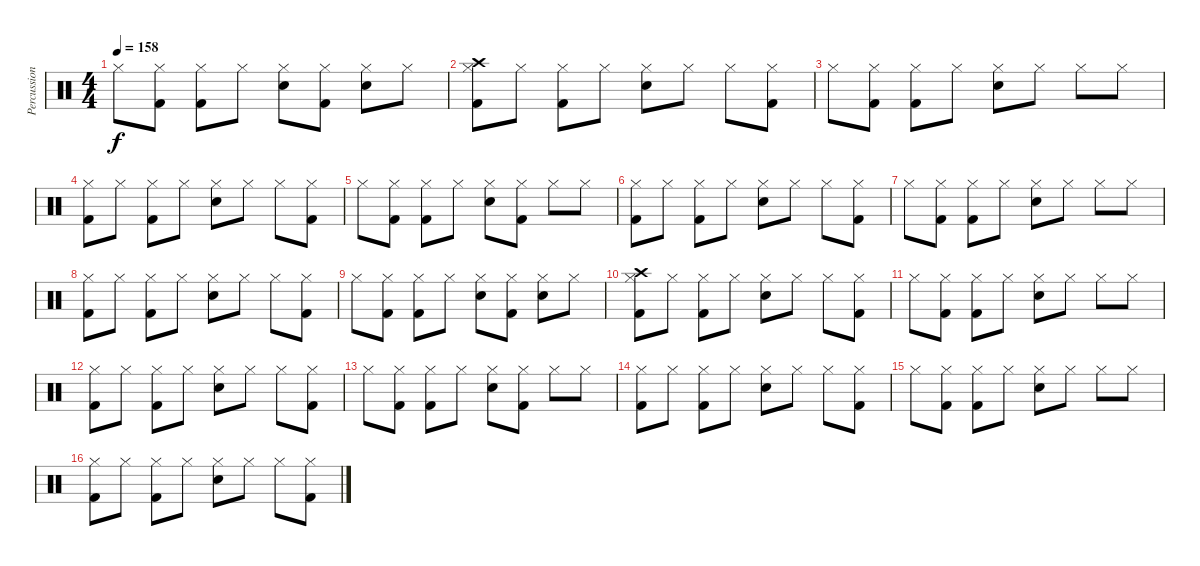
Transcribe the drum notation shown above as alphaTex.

\track ("Percussion" "Percussion") {instrument percussion}
\staff {score}
\articulation defaults
\ts (4 4)
\tempo 158
\clef neutral
\ks c "Hi-Hat (closed)".8{dy f}
("Hi-Hat (closed)" "Kick (hit) 2").8 ("Hi-Hat (closed)" "Kick (hit) 2").8 "Hi-Hat (closed)".8 ("Hi-Hat (closed)" "Electric Snare (hit)").8 ("Hi-Hat (closed)" "Kick (hit) 2").8 ("Hi-Hat (closed)" "Electric Snare (hit)").8 "Hi-Hat (closed)".8 |
("Hi-Hat (closed)" "Kick (hit) 2" "Crash high (hit)").8 "Hi-Hat (closed)".8 ("Hi-Hat (closed)" "Kick (hit) 2").8 "Hi-Hat (closed)".8 ("Hi-Hat (closed)" "Electric Snare (hit)").8 "Hi-Hat (closed)".8 "Hi-Hat (closed)".8 ("Hi-Hat (closed)" "Kick (hit) 2").8 |
"Hi-Hat (closed)".8 ("Hi-Hat (closed)" "Kick (hit) 2").8 ("Hi-Hat (closed)" "Kick (hit) 2").8 "Hi-Hat (closed)".8 ("Hi-Hat (closed)" "Electric Snare (hit)").8 "Hi-Hat (closed)".8 "Hi-Hat (closed)".8 "Hi-Hat (closed)".8 |
("Hi-Hat (closed)" "Kick (hit) 2").8 "Hi-Hat (closed)".8 ("Hi-Hat (closed)" "Kick (hit) 2").8 "Hi-Hat (closed)".8 ("Hi-Hat (closed)" "Electric Snare (hit)").8 "Hi-Hat (closed)".8 "Hi-Hat (closed)".8 ("Hi-Hat (closed)" "Kick (hit) 2").8 |
"Hi-Hat (closed)".8 ("Hi-Hat (closed)" "Kick (hit) 2").8 ("Hi-Hat (closed)" "Kick (hit) 2").8 "Hi-Hat (closed)".8 ("Hi-Hat (closed)" "Electric Snare (hit)").8 ("Hi-Hat (closed)" "Kick (hit) 2").8 "Hi-Hat (closed)".8 "Hi-Hat (closed)".8 |
("Hi-Hat (closed)" "Kick (hit) 2").8 "Hi-Hat (closed)".8 ("Hi-Hat (closed)" "Kick (hit) 2").8 "Hi-Hat (closed)".8 ("Hi-Hat (closed)" "Electric Snare (hit)").8 "Hi-Hat (closed)".8 "Hi-Hat (closed)".8 ("Hi-Hat (closed)" "Kick (hit) 2").8 |
"Hi-Hat (closed)".8 ("Hi-Hat (closed)" "Kick (hit) 2").8 ("Hi-Hat (closed)" "Kick (hit) 2").8 "Hi-Hat (closed)".8 ("Hi-Hat (closed)" "Electric Snare (hit)").8 "Hi-Hat (closed)".8 "Hi-Hat (closed)".8 "Hi-Hat (closed)".8 |
("Hi-Hat (closed)" "Kick (hit) 2").8 "Hi-Hat (closed)".8 ("Hi-Hat (closed)" "Kick (hit) 2").8 "Hi-Hat (closed)".8 ("Hi-Hat (closed)" "Snare (hit) 2").8 "Hi-Hat (closed)".8 "Hi-Hat (closed)".8 ("Hi-Hat (closed)" "Kick (hit) 2").8 |
"Hi-Hat (closed)".8 ("Hi-Hat (closed)" "Kick (hit) 2").8 ("Hi-Hat (closed)" "Kick (hit) 2").8 "Hi-Hat (closed)".8 ("Hi-Hat (closed)" "Electric Snare (hit)").8 ("Hi-Hat (closed)" "Kick (hit) 2").8 ("Hi-Hat (closed)" "Electric Snare (hit)").8 "Hi-Hat (closed)".8 |
("Hi-Hat (closed)" "Kick (hit) 2" "Crash high (hit)").8 "Hi-Hat (closed)".8 ("Hi-Hat (closed)" "Kick (hit) 2").8 "Hi-Hat (closed)".8 ("Hi-Hat (closed)" "Electric Snare (hit)").8 "Hi-Hat (closed)".8 "Hi-Hat (closed)".8 ("Hi-Hat (closed)" "Kick (hit) 2").8 |
"Hi-Hat (closed)".8 ("Hi-Hat (closed)" "Kick (hit) 2").8 ("Hi-Hat (closed)" "Kick (hit) 2").8 "Hi-Hat (closed)".8 ("Hi-Hat (closed)" "Electric Snare (hit)").8 "Hi-Hat (closed)".8 "Hi-Hat (closed)".8 "Hi-Hat (closed)".8 |
("Hi-Hat (closed)" "Kick (hit) 2").8 "Hi-Hat (closed)".8 ("Hi-Hat (closed)" "Kick (hit) 2").8 "Hi-Hat (closed)".8 ("Hi-Hat (closed)" "Electric Snare (hit)").8 "Hi-Hat (closed)".8 "Hi-Hat (closed)".8 ("Hi-Hat (closed)" "Kick (hit) 2").8 |
"Hi-Hat (closed)".8 ("Hi-Hat (closed)" "Kick (hit) 2").8 ("Hi-Hat (closed)" "Kick (hit) 2").8 "Hi-Hat (closed)".8 ("Hi-Hat (closed)" "Electric Snare (hit)").8 ("Hi-Hat (closed)" "Kick (hit) 2").8 "Hi-Hat (closed)".8 "Hi-Hat (closed)".8 |
("Hi-Hat (closed)" "Kick (hit) 2").8 "Hi-Hat (closed)".8 ("Hi-Hat (closed)" "Kick (hit) 2").8 "Hi-Hat (closed)".8 ("Hi-Hat (closed)" "Electric Snare (hit)").8 "Hi-Hat (closed)".8 "Hi-Hat (closed)".8 ("Hi-Hat (closed)" "Kick (hit) 2").8 |
"Hi-Hat (closed)".8 ("Hi-Hat (closed)" "Kick (hit) 2").8 ("Hi-Hat (closed)" "Kick (hit) 2").8 "Hi-Hat (closed)".8 ("Hi-Hat (closed)" "Electric Snare (hit)").8 "Hi-Hat (closed)".8 "Hi-Hat (closed)".8 "Hi-Hat (closed)".8 |
("Hi-Hat (closed)" "Kick (hit) 2").8 "Hi-Hat (closed)".8 ("Hi-Hat (closed)" "Kick (hit) 2").8 "Hi-Hat (closed)".8 ("Hi-Hat (closed)" "Snare (hit) 2").8 "Hi-Hat (closed)".8 "Hi-Hat (closed)".8 ("Hi-Hat (closed)" "Kick (hit) 2").8
